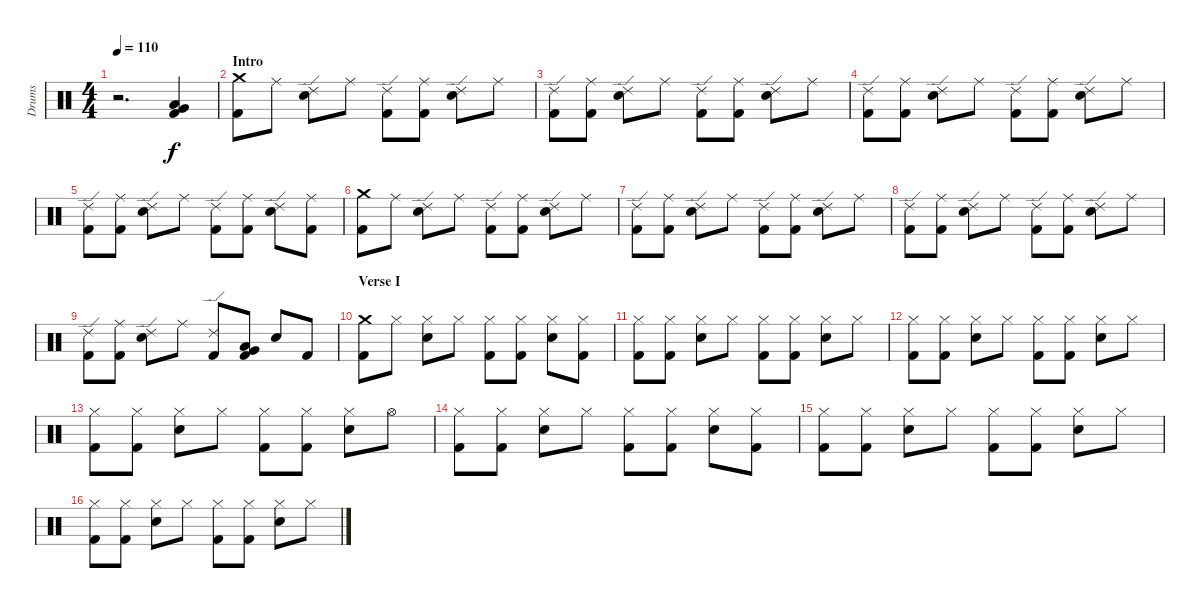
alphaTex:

\track ("Drums" "Drums") {instrument percussion}
\staff {score}
\articulation defaults
\ts (4 4)
\tempo 110
\clef neutral
\ks c
r.2{d dy f} ("Very Low Tom (hit)" "Low Floor Tom (hit)" "Kick (hit) 2").4 |
\section ("" "Intro")
("Crash medium (hit)" "Kick (hit) 2").8 "Ride (middle)".8 ("Ride (edge) 2" "Electric Snare (hit)").8 "Ride (middle)".8 ("Ride (edge) 2" "Kick (hit) 2").8 ("Ride (middle)" "Kick (hit) 2").8 ("Ride (edge) 2" "Electric Snare (hit)").8 "Ride (middle)".8 |
("Ride (edge) 2" "Kick (hit) 2").8 ("Ride (middle)" "Kick (hit) 2").8 ("Ride (edge) 2" "Electric Snare (hit)").8 "Ride (middle)".8 ("Ride (edge) 2" "Kick (hit) 2").8 ("Ride (middle)" "Kick (hit) 2").8 ("Ride (edge) 2" "Electric Snare (hit)").8 "Ride (middle)".8 |
("Ride (edge) 2" "Kick (hit) 2").8 ("Ride (middle)" "Kick (hit) 2").8 ("Ride (edge) 2" "Electric Snare (hit)").8 "Ride (middle)".8 ("Ride (edge) 2" "Kick (hit) 2").8 ("Ride (middle)" "Kick (hit) 2").8 ("Ride (edge) 2" "Electric Snare (hit)").8 "Ride (middle)".8 |
("Ride (edge) 2" "Kick (hit) 2").8 ("Ride (middle)" "Kick (hit) 2").8 ("Ride (edge) 2" "Electric Snare (hit)").8 "Ride (middle)".8 ("Ride (edge) 2" "Kick (hit) 2").8 ("Ride (middle)" "Kick (hit) 2").8 ("Ride (edge) 2" "Electric Snare (hit)").8 ("Ride (middle)" "Kick (hit) 2").8 |
("Crash medium (hit)" "Kick (hit) 2").8 "Ride (middle)".8 ("Ride (edge) 2" "Electric Snare (hit)").8 "Ride (middle)".8 ("Ride (edge) 2" "Kick (hit) 2").8 ("Ride (middle)" "Kick (hit) 2").8 ("Ride (edge) 2" "Electric Snare (hit)").8 "Ride (middle)".8 |
("Ride (edge) 2" "Kick (hit) 2").8 ("Ride (middle)" "Kick (hit) 2").8 ("Ride (edge) 2" "Electric Snare (hit)").8 "Ride (middle)".8 ("Ride (edge) 2" "Kick (hit) 2").8 ("Ride (middle)" "Kick (hit) 2").8 ("Ride (edge) 2" "Electric Snare (hit)").8 "Ride (middle)".8 |
("Ride (edge) 2" "Kick (hit) 2").8 ("Ride (middle)" "Kick (hit) 2").8 ("Ride (edge) 2" "Electric Snare (hit)").8 "Ride (middle)".8 ("Ride (edge) 2" "Kick (hit) 2").8 ("Ride (middle)" "Kick (hit) 2").8 ("Ride (edge) 2" "Electric Snare (hit)").8 "Ride (middle)".8 |
("Ride (edge) 2" "Kick (hit) 2").8 ("Ride (middle)" "Kick (hit) 2").8 ("Ride (edge) 2" "Electric Snare (hit)").8 "Ride (middle)".8 ("Ride (edge) 2" "Kick (hit) 2").8 ("Very Low Tom (hit)" "Low Floor Tom (hit)" "Kick (hit) 2").8 "Electric Snare (hit)".8 "Kick (hit) 2".8 |
\section ("" "Verse I")
("Crash medium (hit)" "Kick (hit) 2").8 "Hi-Hat (closed)".8 ("Hi-Hat (closed)" "Electric Snare (hit)").8 "Hi-Hat (closed)".8 ("Hi-Hat (closed)" "Kick (hit) 2").8 ("Hi-Hat (closed)" "Kick (hit) 2").8 ("Hi-Hat (closed)" "Electric Snare (hit)").8 ("Hi-Hat (closed)" "Kick (hit) 2").8 |
("Hi-Hat (closed)" "Kick (hit) 2").8 ("Hi-Hat (closed)" "Kick (hit) 2").8 ("Hi-Hat (closed)" "Electric Snare (hit)").8 "Hi-Hat (closed)".8 ("Hi-Hat (closed)" "Kick (hit) 2").8 ("Hi-Hat (closed)" "Kick (hit) 2").8 ("Hi-Hat (closed)" "Electric Snare (hit)").8 "Hi-Hat (closed)".8 |
("Hi-Hat (closed)" "Kick (hit) 2").8 ("Hi-Hat (closed)" "Kick (hit) 2").8 ("Hi-Hat (closed)" "Electric Snare (hit)").8 "Hi-Hat (closed)".8 ("Hi-Hat (closed)" "Kick (hit) 2").8 ("Hi-Hat (closed)" "Kick (hit) 2").8 ("Hi-Hat (closed)" "Electric Snare (hit)").8 "Hi-Hat (closed)".8 |
("Hi-Hat (closed)" "Kick (hit) 2").8 ("Hi-Hat (closed)" "Kick (hit) 2").8 ("Hi-Hat (closed)" "Electric Snare (hit)").8 "Hi-Hat (closed)".8 ("Hi-Hat (closed)" "Kick (hit) 2").8 ("Hi-Hat (closed)" "Kick (hit) 2").8 ("Hi-Hat (closed)" "Electric Snare (hit)").8 "Hi-Hat (open)".8 |
("Hi-Hat (closed)" "Kick (hit) 2").8 ("Hi-Hat (closed)" "Kick (hit) 2").8 ("Hi-Hat (closed)" "Electric Snare (hit)").8 "Hi-Hat (closed)".8 ("Hi-Hat (closed)" "Kick (hit) 2").8 ("Hi-Hat (closed)" "Kick (hit) 2").8 ("Hi-Hat (closed)" "Electric Snare (hit)").8 ("Hi-Hat (closed)" "Kick (hit) 2").8 |
("Hi-Hat (closed)" "Kick (hit) 2").8 ("Hi-Hat (closed)" "Kick (hit) 2").8 ("Hi-Hat (closed)" "Electric Snare (hit)").8 "Hi-Hat (closed)".8 ("Hi-Hat (closed)" "Kick (hit) 2").8 ("Hi-Hat (closed)" "Kick (hit) 2").8 ("Hi-Hat (closed)" "Electric Snare (hit)").8 "Hi-Hat (closed)".8 |
("Hi-Hat (closed)" "Kick (hit) 2").8 ("Hi-Hat (closed)" "Kick (hit) 2").8 ("Hi-Hat (closed)" "Electric Snare (hit)").8 "Hi-Hat (closed)".8 ("Hi-Hat (closed)" "Kick (hit) 2").8 ("Hi-Hat (closed)" "Kick (hit) 2").8 ("Hi-Hat (closed)" "Electric Snare (hit)").8 "Hi-Hat (closed)".8
